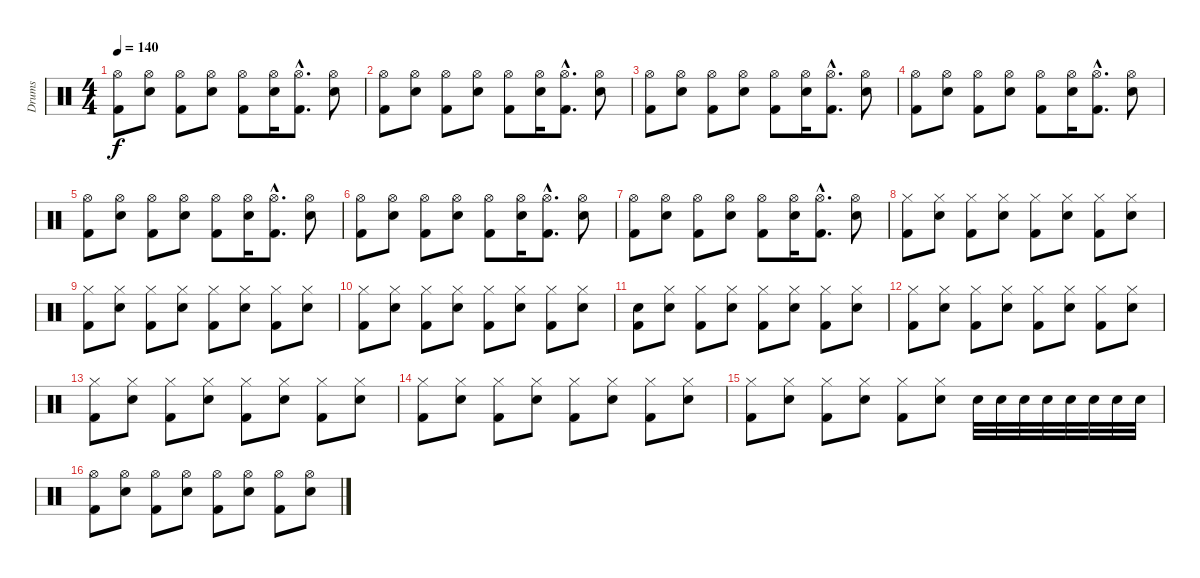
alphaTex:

\track ("Drums" "Drums") {instrument percussion}
\staff {score}
\articulation defaults
\ts (4 4)
\tempo 140
\clef neutral
\ks c
("Hi-Hat (open)" "Kick (hit) 2").8{dy f} ("Hi-Hat (open)" "Electric Snare (hit)").8 ("Hi-Hat (open)" "Kick (hit) 2").8 ("Hi-Hat (open)" "Electric Snare (hit)").8 ("Hi-Hat (open)" "Kick (hit) 2").8 ("Hi-Hat (open)" "Electric Snare (hit)").16 ("Hi-Hat (open)"{hac} "Kick (hit) 2"{hac}).8{d} ("Hi-Hat (open)" "Electric Snare (hit)").8 |
("Hi-Hat (open)" "Kick (hit) 2").8 ("Hi-Hat (open)" "Electric Snare (hit)").8 ("Hi-Hat (open)" "Kick (hit) 2").8 ("Hi-Hat (open)" "Electric Snare (hit)").8 ("Hi-Hat (open)" "Kick (hit) 2").8 ("Hi-Hat (open)" "Electric Snare (hit)").16 ("Hi-Hat (open)"{hac} "Kick (hit) 2"{hac}).8{d} ("Hi-Hat (open)" "Electric Snare (hit)").8 |
("Hi-Hat (open)" "Kick (hit) 2").8 ("Hi-Hat (open)" "Electric Snare (hit)").8 ("Hi-Hat (open)" "Kick (hit) 2").8 ("Hi-Hat (open)" "Electric Snare (hit)").8 ("Hi-Hat (open)" "Kick (hit) 2").8 ("Hi-Hat (open)" "Electric Snare (hit)").16 ("Hi-Hat (open)"{hac} "Kick (hit) 2"{hac}).8{d} ("Hi-Hat (open)" "Electric Snare (hit)").8 |
("Hi-Hat (open)" "Kick (hit) 2").8 ("Hi-Hat (open)" "Electric Snare (hit)").8 ("Hi-Hat (open)" "Kick (hit) 2").8 ("Hi-Hat (open)" "Electric Snare (hit)").8 ("Hi-Hat (open)" "Kick (hit) 2").8 ("Hi-Hat (open)" "Electric Snare (hit)").16 ("Hi-Hat (open)"{hac} "Kick (hit) 2"{hac}).8{d} ("Hi-Hat (open)" "Electric Snare (hit)").8 |
("Hi-Hat (open)" "Kick (hit) 2").8 ("Hi-Hat (open)" "Electric Snare (hit)").8 ("Hi-Hat (open)" "Kick (hit) 2").8 ("Hi-Hat (open)" "Electric Snare (hit)").8 ("Hi-Hat (open)" "Kick (hit) 2").8 ("Hi-Hat (open)" "Electric Snare (hit)").16 ("Hi-Hat (open)"{hac} "Kick (hit) 2"{hac}).8{d} ("Hi-Hat (open)" "Electric Snare (hit)").8 |
("Hi-Hat (open)" "Kick (hit) 2").8 ("Hi-Hat (open)" "Electric Snare (hit)").8 ("Hi-Hat (open)" "Kick (hit) 2").8 ("Hi-Hat (open)" "Electric Snare (hit)").8 ("Hi-Hat (open)" "Kick (hit) 2").8 ("Hi-Hat (open)" "Electric Snare (hit)").16 ("Hi-Hat (open)"{hac} "Kick (hit) 2"{hac}).8{d} ("Hi-Hat (open)" "Electric Snare (hit)").8 |
("Hi-Hat (open)" "Kick (hit) 2").8 ("Hi-Hat (open)" "Electric Snare (hit)").8 ("Hi-Hat (open)" "Kick (hit) 2").8 ("Hi-Hat (open)" "Electric Snare (hit)").8 ("Hi-Hat (open)" "Kick (hit) 2").8 ("Hi-Hat (open)" "Electric Snare (hit)").16 ("Hi-Hat (open)"{hac} "Kick (hit) 2"{hac}).8{d} ("Hi-Hat (open)" "Electric Snare (hit)").8 |
("Hi-Hat (closed)" "Kick (hit) 2").8 ("Hi-Hat (closed)" "Electric Snare (hit)").8 ("Hi-Hat (closed)" "Kick (hit) 2").8 ("Hi-Hat (closed)" "Electric Snare (hit)").8 ("Hi-Hat (closed)" "Kick (hit) 2").8 ("Hi-Hat (closed)" "Electric Snare (hit)").8 ("Hi-Hat (closed)" "Kick (hit) 2").8 ("Hi-Hat (closed)" "Electric Snare (hit)").8 |
("Hi-Hat (closed)" "Kick (hit) 2").8 ("Hi-Hat (closed)" "Electric Snare (hit)").8 ("Hi-Hat (closed)" "Kick (hit) 2").8 ("Hi-Hat (closed)" "Electric Snare (hit)").8 ("Hi-Hat (closed)" "Kick (hit) 2").8 ("Hi-Hat (closed)" "Electric Snare (hit)").8 ("Hi-Hat (closed)" "Kick (hit) 2").8 ("Hi-Hat (closed)" "Electric Snare (hit)").8 |
("Hi-Hat (closed)" "Kick (hit) 2").8 ("Hi-Hat (closed)" "Electric Snare (hit)").8 ("Hi-Hat (closed)" "Kick (hit) 2").8 ("Hi-Hat (closed)" "Electric Snare (hit)").8 ("Hi-Hat (closed)" "Kick (hit) 2").8 ("Hi-Hat (closed)" "Electric Snare (hit)").8 ("Hi-Hat (closed)" "Kick (hit) 2").8 ("Hi-Hat (closed)" "Electric Snare (hit)").8 |
("Snare (hit)" "Kick (hit) 2").8 ("Hi-Hat (closed)" "Electric Snare (hit)").8 ("Hi-Hat (closed)" "Kick (hit) 2").8 ("Hi-Hat (closed)" "Electric Snare (hit)").8 ("Hi-Hat (closed)" "Kick (hit) 2").8 ("Hi-Hat (closed)" "Electric Snare (hit)").8 ("Hi-Hat (closed)" "Kick (hit) 2").8 ("Hi-Hat (closed)" "Electric Snare (hit)").8 |
("Hi-Hat (closed)" "Kick (hit) 2").8 ("Hi-Hat (closed)" "Electric Snare (hit)").8 ("Hi-Hat (closed)" "Kick (hit) 2").8 ("Hi-Hat (closed)" "Electric Snare (hit)").8 ("Hi-Hat (closed)" "Kick (hit) 2").8 ("Hi-Hat (closed)" "Electric Snare (hit)").8 ("Hi-Hat (closed)" "Kick (hit) 2").8 ("Hi-Hat (closed)" "Electric Snare (hit)").8 |
("Hi-Hat (closed)" "Kick (hit) 2").8 ("Hi-Hat (closed)" "Electric Snare (hit)").8 ("Hi-Hat (closed)" "Kick (hit) 2").8 ("Hi-Hat (closed)" "Electric Snare (hit)").8 ("Hi-Hat (closed)" "Kick (hit) 2").8 ("Hi-Hat (closed)" "Electric Snare (hit)").8 ("Hi-Hat (closed)" "Kick (hit) 2").8 ("Hi-Hat (closed)" "Electric Snare (hit)").8 |
("Hi-Hat (closed)" "Kick (hit) 2").8 ("Hi-Hat (closed)" "Electric Snare (hit)").8 ("Hi-Hat (closed)" "Kick (hit) 2").8 ("Hi-Hat (closed)" "Electric Snare (hit)").8 ("Hi-Hat (closed)" "Kick (hit) 2").8 ("Hi-Hat (closed)" "Electric Snare (hit)").8 ("Hi-Hat (closed)" "Kick (hit) 2").8 ("Hi-Hat (closed)" "Electric Snare (hit)").8 |
("Hi-Hat (closed)" "Kick (hit) 2").8 ("Hi-Hat (closed)" "Electric Snare (hit)").8 ("Hi-Hat (closed)" "Kick (hit) 2").8 ("Hi-Hat (closed)" "Electric Snare (hit)").8 ("Hi-Hat (closed)" "Kick (hit) 2").8 ("Hi-Hat (closed)" "Electric Snare (hit)").8 "Electric Snare (hit)".32 "Electric Snare (hit)".32 "Electric Snare (hit)".32 "Electric Snare (hit)".32 "Electric Snare (hit)".32 "Electric Snare (hit)".32 "Electric Snare (hit)".32 "Electric Snare (hit)".32 |
("Hi-Hat (open)" "Kick (hit) 2").8 ("Hi-Hat (open)" "Electric Snare (hit)").8 ("Hi-Hat (open)" "Kick (hit) 2").8 ("Hi-Hat (open)" "Electric Snare (hit)").8 ("Hi-Hat (open)" "Kick (hit) 2").8 ("Hi-Hat (open)" "Electric Snare (hit)").8 ("Hi-Hat (open)" "Kick (hit) 2").8 ("Hi-Hat (open)" "Electric Snare (hit)").8
